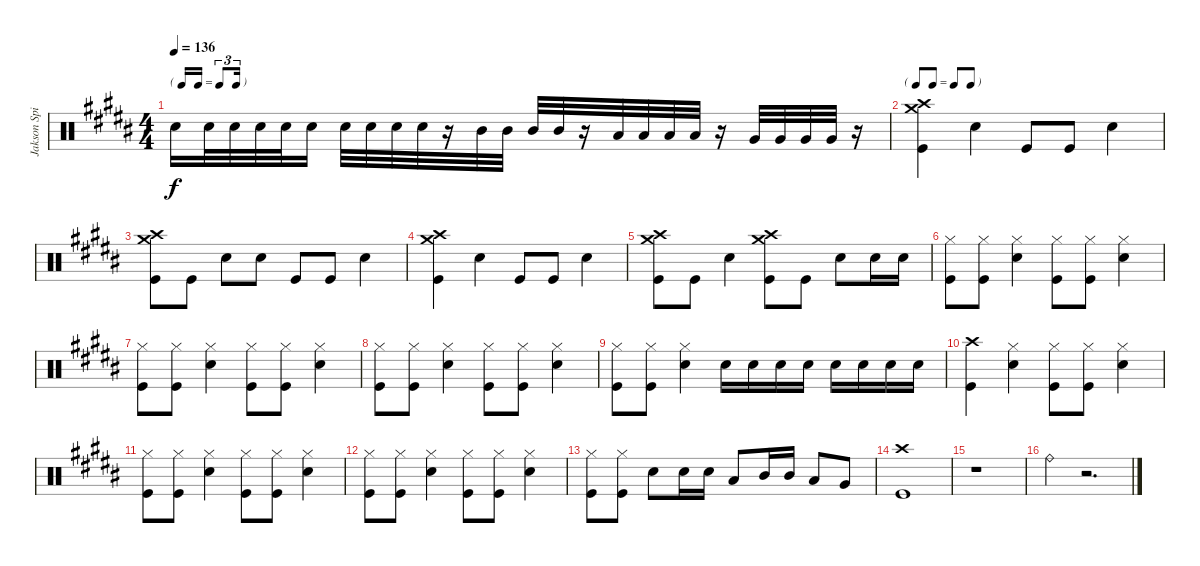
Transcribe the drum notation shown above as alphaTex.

\track ("Jakson Spires Drums" "Jakson Spi") {instrument percussion}
\staff {score}
\articulation defaults
\ts (4 4)
\tf triplet16th
\tempo 136
\clef neutral
\ks b "Snare (hit) 2".16{dy f} "Snare (hit) 2".32 "Snare (hit) 2".32 "Snare (hit) 2".32 "Snare (hit) 2".32 "Snare (hit) 2".16 "Snare (hit) 2".32 "Snare (hit) 2".32 "Snare (hit) 2".32 "Snare (hit) 2".32
r.16 "Mid Tom (hit)".32 "Mid Tom (hit)".32 "Mid Tom (hit)".32 "Mid Tom (hit)".32 r.16 "Low Tom (hit)".32 "Low Tom (hit)".32 "Low Tom (hit)".32 "Low Tom (hit)".32 r.16 "Very Low Tom (hit)".32 "Very Low Tom (hit)".32 "Very Low Tom (hit)".32 "Very Low Tom (hit)".32 r.16 |
\tf none
("Crash high (hit)" "Crash medium (hit)" "Kick (hit)").4 "Snare (hit) 2".4 "Kick (hit)".8 "Kick (hit)".8 "Snare (hit) 2".4 |
("Crash high (hit)" "Crash medium (hit)" "Kick (hit)").8 "Kick (hit)".8 "Snare (hit) 2".8 "Snare (hit) 2".8 "Kick (hit)".8 "Kick (hit)".8 "Snare (hit) 2".4 |
("Crash high (hit)" "Crash medium (hit)" "Kick (hit)").4 "Snare (hit) 2".4 "Kick (hit)".8 "Kick (hit)".8 "Snare (hit) 2".4 |
("Crash high (hit)" "Crash medium (hit)" "Kick (hit)").8 "Kick (hit)".8 "Snare (hit) 2".4 ("Crash high (hit)" "Crash medium (hit)" "Kick (hit)").8 "Kick (hit)".8 "Snare (hit) 2".8 "Snare (hit) 2".16 "Snare (hit) 2".16 |
("Hi-Hat (closed)" "Kick (hit)").8 ("Hi-Hat (closed)" "Kick (hit)").8 ("Hi-Hat (closed)" "Snare (hit) 2").4 ("Hi-Hat (closed)" "Kick (hit)").8 ("Hi-Hat (closed)" "Kick (hit)").8 ("Hi-Hat (closed)" "Snare (hit) 2").4 |
("Hi-Hat (closed)" "Kick (hit)").8 ("Hi-Hat (closed)" "Kick (hit)").8 ("Hi-Hat (closed)" "Snare (hit) 2").4 ("Hi-Hat (closed)" "Kick (hit)").8 ("Hi-Hat (closed)" "Kick (hit)").8 ("Hi-Hat (closed)" "Snare (hit) 2").4 |
("Hi-Hat (closed)" "Kick (hit)").8 ("Hi-Hat (closed)" "Kick (hit)").8 ("Hi-Hat (closed)" "Snare (hit) 2").4 ("Hi-Hat (closed)" "Kick (hit)").8 ("Hi-Hat (closed)" "Kick (hit)").8 ("Hi-Hat (closed)" "Snare (hit) 2").4 |
("Hi-Hat (closed)" "Kick (hit)").8 ("Hi-Hat (closed)" "Kick (hit)").8 ("Hi-Hat (closed)" "Snare (hit) 2").4 "Snare (hit) 2".16 "Snare (hit) 2".16 "Snare (hit) 2".16 "Snare (hit) 2".16 "Snare (hit) 2".16 "Snare (hit) 2".16 "Snare (hit) 2".16 "Snare (hit) 2".16 |
("Crash high (hit)" "Kick (hit)").4 ("Hi-Hat (closed)" "Snare (hit) 2").4 ("Hi-Hat (closed)" "Kick (hit)").8 ("Hi-Hat (closed)" "Kick (hit)").8 ("Hi-Hat (closed)" "Snare (hit) 2").4 |
("Hi-Hat (closed)" "Kick (hit)").8 ("Hi-Hat (closed)" "Kick (hit)").8 ("Hi-Hat (closed)" "Snare (hit) 2").4 ("Hi-Hat (closed)" "Kick (hit)").8 ("Hi-Hat (closed)" "Kick (hit)").8 ("Hi-Hat (closed)" "Snare (hit) 2").4 |
("Hi-Hat (closed)" "Kick (hit)").8 ("Hi-Hat (closed)" "Kick (hit)").8 ("Hi-Hat (closed)" "Snare (hit) 2").4 ("Hi-Hat (closed)" "Kick (hit)").8 ("Hi-Hat (closed)" "Kick (hit)").8 ("Hi-Hat (closed)" "Snare (hit) 2").4 |
("Hi-Hat (closed)" "Kick (hit)").8 ("Hi-Hat (closed)" "Kick (hit)").8 "Snare (hit) 2".8 "Snare (hit) 2".16 "Snare (hit) 2".16 "Low Tom (hit)".8 "Mid Tom (hit)".16 "Mid Tom (hit)".16 "Low Tom (hit)".8 "Very Low Tom (hit)".8 |
("Crash high (hit)" "Kick (hit)").1 |
r.1 |
"Ride (bell)".4 r.2{d}
